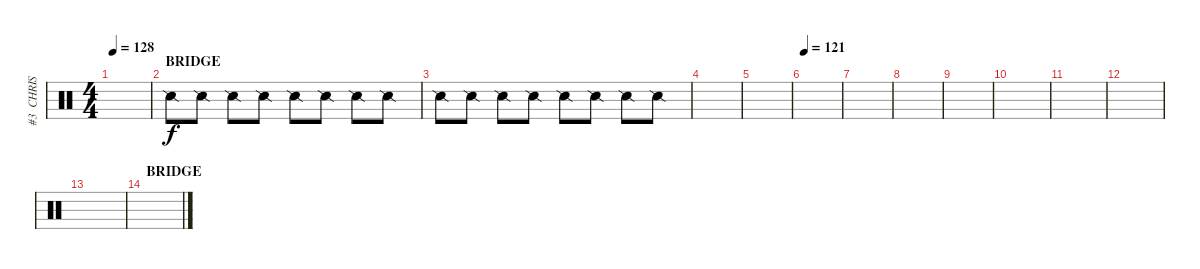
\track ("#3  CHRIS FEHN" "#3  CHRIS ") {instrument percussion}
\staff {score}
\articulation defaults
\ts (4 4)
\tempo 128
\clef neutral
\ks c
|
\section ("" "BRIDGE")
"Snare (side stick) 2".8 "Snare (side stick) 2".8 "Snare (side stick) 2".8 "Snare (side stick) 2".8 "Snare (side stick) 2".8 "Snare (side stick) 2".8 "Snare (side stick) 2".8 "Snare (side stick) 2".8 |
"Snare (side stick) 2".8 "Snare (side stick) 2".8 "Snare (side stick) 2".8 "Snare (side stick) 2".8 "Snare (side stick) 2".8 "Snare (side stick) 2".8 "Snare (side stick) 2".8 "Snare (side stick) 2".8 |
|
|
\section ("" "")
\tempo 121
|
|
|
|
|
|
|
|
\section ("" "BRIDGE")
